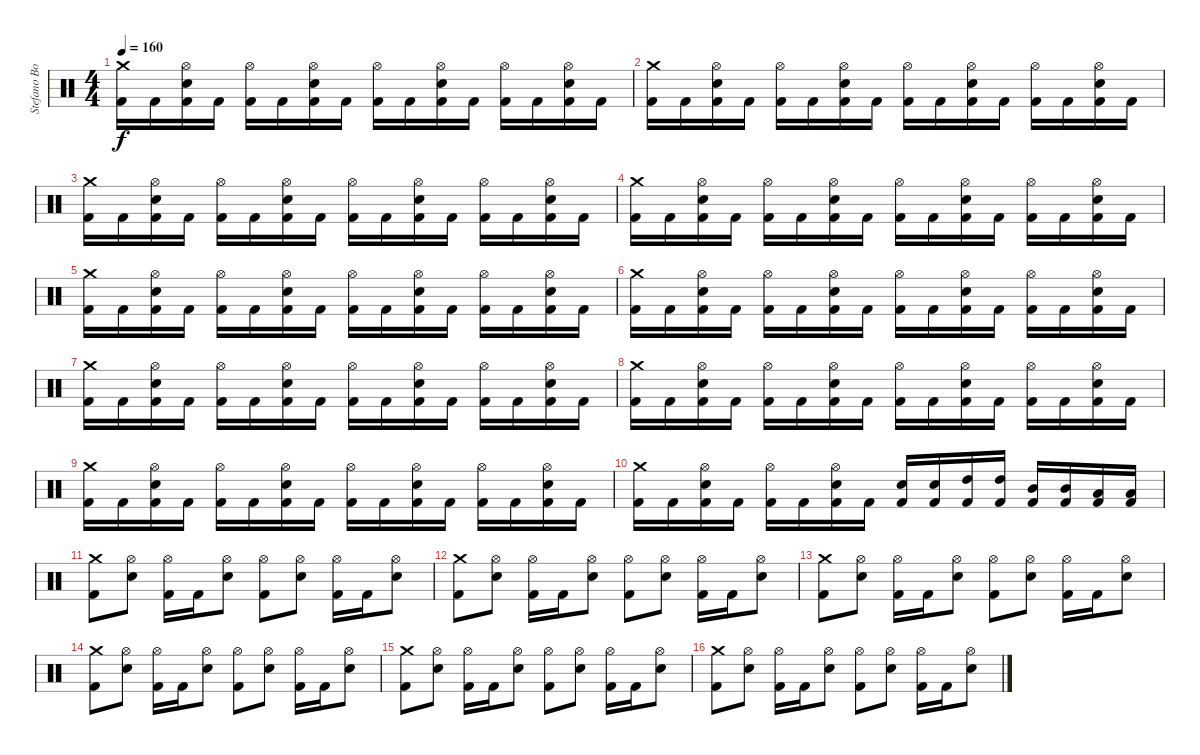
\track ("Stefano Bonini" "Stefano Bo") {instrument percussion}
\staff {score}
\articulation defaults
\ts (4 4)
\tempo 160
\clef neutral
\ks c
("Crash medium (hit)" "Kick (hit) 2").16{dy f} "Kick (hit) 2".16 ("Hi-Hat (open)" "Snare (hit) 2" "Kick (hit) 2").16 "Kick (hit) 2".16 ("Hi-Hat (open)" "Kick (hit) 2").16 "Kick (hit) 2".16 ("Hi-Hat (open)" "Snare (hit) 2" "Kick (hit) 2").16 "Kick (hit) 2".16 ("Hi-Hat (open)" "Kick (hit) 2").16 "Kick (hit) 2".16 ("Hi-Hat (open)" "Snare (hit) 2" "Kick (hit) 2").16 "Kick (hit) 2".16 ("Hi-Hat (open)" "Kick (hit) 2").16 "Kick (hit) 2".16 ("Hi-Hat (open)" "Snare (hit) 2" "Kick (hit) 2").16 "Kick (hit) 2".16 |
("Crash medium (hit)" "Kick (hit) 2").16 "Kick (hit) 2".16 ("Hi-Hat (open)" "Snare (hit) 2" "Kick (hit) 2").16 "Kick (hit) 2".16 ("Hi-Hat (open)" "Kick (hit) 2").16 "Kick (hit) 2".16 ("Hi-Hat (open)" "Snare (hit) 2" "Kick (hit) 2").16 "Kick (hit) 2".16 ("Hi-Hat (open)" "Kick (hit) 2").16 "Kick (hit) 2".16 ("Hi-Hat (open)" "Snare (hit) 2" "Kick (hit) 2").16 "Kick (hit) 2".16 ("Hi-Hat (open)" "Kick (hit) 2").16 "Kick (hit) 2".16 ("Hi-Hat (open)" "Snare (hit) 2" "Kick (hit) 2").16 "Kick (hit) 2".16 |
("Crash medium (hit)" "Kick (hit) 2").16 "Kick (hit) 2".16 ("Hi-Hat (open)" "Snare (hit) 2" "Kick (hit) 2").16 "Kick (hit) 2".16 ("Hi-Hat (open)" "Kick (hit) 2").16 "Kick (hit) 2".16 ("Hi-Hat (open)" "Snare (hit) 2" "Kick (hit) 2").16 "Kick (hit) 2".16 ("Hi-Hat (open)" "Kick (hit) 2").16 "Kick (hit) 2".16 ("Hi-Hat (open)" "Snare (hit) 2" "Kick (hit) 2").16 "Kick (hit) 2".16 ("Hi-Hat (open)" "Kick (hit) 2").16 "Kick (hit) 2".16 ("Hi-Hat (open)" "Snare (hit) 2" "Kick (hit) 2").16 "Kick (hit) 2".16 |
("Crash medium (hit)" "Kick (hit) 2").16 "Kick (hit) 2".16 ("Hi-Hat (open)" "Snare (hit) 2" "Kick (hit) 2").16 "Kick (hit) 2".16 ("Hi-Hat (open)" "Kick (hit) 2").16 "Kick (hit) 2".16 ("Hi-Hat (open)" "Snare (hit) 2" "Kick (hit) 2").16 "Kick (hit) 2".16 ("Hi-Hat (open)" "Kick (hit) 2").16 "Kick (hit) 2".16 ("Hi-Hat (open)" "Snare (hit) 2" "Kick (hit) 2").16 "Kick (hit) 2".16 ("Hi-Hat (open)" "Kick (hit) 2").16 "Kick (hit) 2".16 ("Hi-Hat (open)" "Snare (hit) 2" "Kick (hit) 2").16 "Kick (hit) 2".16 |
("Crash medium (hit)" "Kick (hit) 2").16 "Kick (hit) 2".16 ("Hi-Hat (open)" "Snare (hit) 2" "Kick (hit) 2").16 "Kick (hit) 2".16 ("Hi-Hat (open)" "Kick (hit) 2").16 "Kick (hit) 2".16 ("Hi-Hat (open)" "Snare (hit) 2" "Kick (hit) 2").16 "Kick (hit) 2".16 ("Hi-Hat (open)" "Kick (hit) 2").16 "Kick (hit) 2".16 ("Hi-Hat (open)" "Snare (hit) 2" "Kick (hit) 2").16 "Kick (hit) 2".16 ("Hi-Hat (open)" "Kick (hit) 2").16 "Kick (hit) 2".16 ("Hi-Hat (open)" "Snare (hit) 2" "Kick (hit) 2").16 "Kick (hit) 2".16 |
("Crash medium (hit)" "Kick (hit) 2").16 "Kick (hit) 2".16 ("Hi-Hat (open)" "Snare (hit) 2" "Kick (hit) 2").16 "Kick (hit) 2".16 ("Hi-Hat (open)" "Kick (hit) 2").16 "Kick (hit) 2".16 ("Hi-Hat (open)" "Snare (hit) 2" "Kick (hit) 2").16 "Kick (hit) 2".16 ("Hi-Hat (open)" "Kick (hit) 2").16 "Kick (hit) 2".16 ("Hi-Hat (open)" "Snare (hit) 2" "Kick (hit) 2").16 "Kick (hit) 2".16 ("Hi-Hat (open)" "Kick (hit) 2").16 "Kick (hit) 2".16 ("Hi-Hat (open)" "Snare (hit) 2" "Kick (hit) 2").16 "Kick (hit) 2".16 |
("Crash medium (hit)" "Kick (hit) 2").16 "Kick (hit) 2".16 ("Hi-Hat (open)" "Snare (hit) 2" "Kick (hit) 2").16 "Kick (hit) 2".16 ("Hi-Hat (open)" "Kick (hit) 2").16 "Kick (hit) 2".16 ("Hi-Hat (open)" "Snare (hit) 2" "Kick (hit) 2").16 "Kick (hit) 2".16 ("Hi-Hat (open)" "Kick (hit) 2").16 "Kick (hit) 2".16 ("Hi-Hat (open)" "Snare (hit) 2" "Kick (hit) 2").16 "Kick (hit) 2".16 ("Hi-Hat (open)" "Kick (hit) 2").16 "Kick (hit) 2".16 ("Hi-Hat (open)" "Snare (hit) 2" "Kick (hit) 2").16 "Kick (hit) 2".16 |
("Crash medium (hit)" "Kick (hit) 2").16 "Kick (hit) 2".16 ("Hi-Hat (open)" "Snare (hit) 2" "Kick (hit) 2").16 "Kick (hit) 2".16 ("Hi-Hat (open)" "Kick (hit) 2").16 "Kick (hit) 2".16 ("Hi-Hat (open)" "Snare (hit) 2" "Kick (hit) 2").16 "Kick (hit) 2".16 ("Hi-Hat (open)" "Kick (hit) 2").16 "Kick (hit) 2".16 ("Hi-Hat (open)" "Snare (hit) 2" "Kick (hit) 2").16 "Kick (hit) 2".16 ("Hi-Hat (open)" "Kick (hit) 2").16 "Kick (hit) 2".16 ("Hi-Hat (open)" "Snare (hit) 2" "Kick (hit) 2").16 "Kick (hit) 2".16 |
("Crash medium (hit)" "Kick (hit) 2").16 "Kick (hit) 2".16 ("Hi-Hat (open)" "Snare (hit) 2" "Kick (hit) 2").16 "Kick (hit) 2".16 ("Hi-Hat (open)" "Kick (hit) 2").16 "Kick (hit) 2".16 ("Hi-Hat (open)" "Snare (hit) 2" "Kick (hit) 2").16 "Kick (hit) 2".16 ("Hi-Hat (open)" "Kick (hit) 2").16 "Kick (hit) 2".16 ("Hi-Hat (open)" "Snare (hit) 2" "Kick (hit) 2").16 "Kick (hit) 2".16 ("Hi-Hat (open)" "Kick (hit) 2").16 "Kick (hit) 2".16 ("Hi-Hat (open)" "Snare (hit) 2" "Kick (hit) 2").16 "Kick (hit) 2".16 |
("Crash medium (hit)" "Kick (hit) 2").16 "Kick (hit) 2".16 ("Hi-Hat (open)" "Snare (hit) 2" "Kick (hit) 2").16 "Kick (hit) 2".16 ("Hi-Hat (open)" "Kick (hit) 2").16 "Kick (hit) 2".16 ("Hi-Hat (open)" "Snare (hit) 2" "Kick (hit) 2").16 "Kick (hit) 2".16 ("Snare (hit) 2" "Kick (hit) 2").16 ("Snare (hit) 2" "Kick (hit) 2").16 ("High Tom (hit)" "Kick (hit) 2").16 ("High Tom (hit)" "Kick (hit) 2").16 ("Mid Tom (hit)" "Kick (hit) 2").16 ("Mid Tom (hit)" "Kick (hit) 2").16 ("Low Tom (hit)" "Kick (hit) 2").16 ("Low Tom (hit)" "Kick (hit) 2").16 |
("Crash medium (hit)" "Kick (hit) 2").8 ("Hi-Hat (open)" "Snare (hit) 2").8 ("Hi-Hat (open)" "Kick (hit) 2").16 "Kick (hit) 2".16 ("Hi-Hat (open)" "Snare (hit) 2").8 ("Hi-Hat (open)" "Kick (hit) 2").8 ("Hi-Hat (open)" "Snare (hit) 2").8 ("Hi-Hat (open)" "Kick (hit) 2").16 "Kick (hit) 2".16 ("Hi-Hat (open)" "Snare (hit) 2").8 |
("Crash medium (hit)" "Kick (hit) 2").8 ("Hi-Hat (open)" "Snare (hit) 2").8 ("Hi-Hat (open)" "Kick (hit) 2").16 "Kick (hit) 2".16 ("Hi-Hat (open)" "Snare (hit) 2").8 ("Hi-Hat (open)" "Kick (hit) 2").8 ("Hi-Hat (open)" "Snare (hit) 2").8 ("Hi-Hat (open)" "Kick (hit) 2").16 "Kick (hit) 2".16 ("Hi-Hat (open)" "Snare (hit) 2").8 |
("Crash medium (hit)" "Kick (hit) 2").8 ("Hi-Hat (open)" "Snare (hit) 2").8 ("Hi-Hat (open)" "Kick (hit) 2").16 "Kick (hit) 2".16 ("Hi-Hat (open)" "Snare (hit) 2").8 ("Hi-Hat (open)" "Kick (hit) 2").8 ("Hi-Hat (open)" "Snare (hit) 2").8 ("Hi-Hat (open)" "Kick (hit) 2").16 "Kick (hit) 2".16 ("Hi-Hat (open)" "Snare (hit) 2").8 |
("Crash medium (hit)" "Kick (hit) 2").8 ("Hi-Hat (open)" "Snare (hit) 2").8 ("Hi-Hat (open)" "Kick (hit) 2").16 "Kick (hit) 2".16 ("Hi-Hat (open)" "Snare (hit) 2").8 ("Hi-Hat (open)" "Kick (hit) 2").8 ("Hi-Hat (open)" "Snare (hit) 2").8 ("Hi-Hat (open)" "Kick (hit) 2").16 "Kick (hit) 2".16 ("Hi-Hat (open)" "Snare (hit) 2").8 |
("Crash medium (hit)" "Kick (hit) 2").8 ("Hi-Hat (open)" "Snare (hit) 2").8 ("Hi-Hat (open)" "Kick (hit) 2").16 "Kick (hit) 2".16 ("Hi-Hat (open)" "Snare (hit) 2").8 ("Hi-Hat (open)" "Kick (hit) 2").8 ("Hi-Hat (open)" "Snare (hit) 2").8 ("Hi-Hat (open)" "Kick (hit) 2").16 "Kick (hit) 2".16 ("Hi-Hat (open)" "Snare (hit) 2").8 |
("Crash medium (hit)" "Kick (hit) 2").8 ("Hi-Hat (open)" "Snare (hit) 2").8 ("Hi-Hat (open)" "Kick (hit) 2").16 "Kick (hit) 2".16 ("Hi-Hat (open)" "Snare (hit) 2").8 ("Hi-Hat (open)" "Kick (hit) 2").8 ("Hi-Hat (open)" "Snare (hit) 2").8 ("Hi-Hat (open)" "Kick (hit) 2").16 "Kick (hit) 2".16 ("Hi-Hat (open)" "Snare (hit) 2").8
